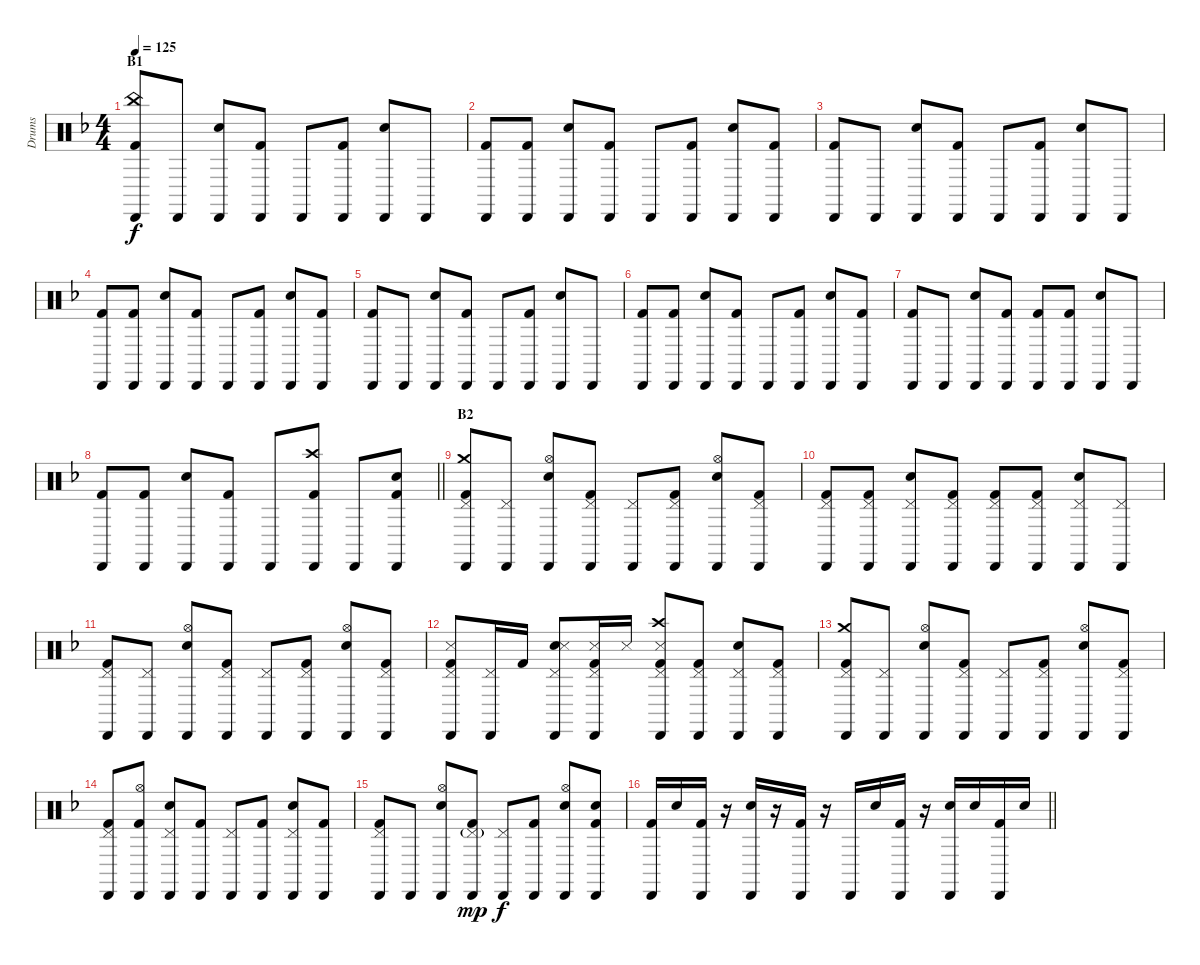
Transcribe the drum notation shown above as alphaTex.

\track ("Drums" "Drums") {instrument percussion}
\staff {score}
\articulation defaults
\ts (4 4)
\section ("" "B1")
\tempo 125
\clef neutral
\ks f
("Cabasa (hit)" "Kick (hit) 2" "China (hit)").8{dy f} "Cabasa (hit)".8 ("Cabasa (hit)" "Electric Snare (hit)").8 ("Cabasa (hit)" "Kick (hit) 2").8 "Cabasa (hit)".8 ("Cabasa (hit)" "Kick (hit) 2").8 ("Cabasa (hit)" "Electric Snare (hit)").8 "Cabasa (hit)".8 |
("Cabasa (hit)" "Kick (hit) 2").8 ("Cabasa (hit)" "Kick (hit) 2").8 ("Cabasa (hit)" "Electric Snare (hit)").8 ("Cabasa (hit)" "Kick (hit) 2").8 "Cabasa (hit)".8 ("Cabasa (hit)" "Kick (hit) 2").8 ("Cabasa (hit)" "Electric Snare (hit)").8 ("Cabasa (hit)" "Kick (hit) 2").8 |
("Cabasa (hit)" "Kick (hit) 2").8 "Cabasa (hit)".8 ("Cabasa (hit)" "Electric Snare (hit)").8 ("Cabasa (hit)" "Kick (hit) 2").8 "Cabasa (hit)".8 ("Cabasa (hit)" "Kick (hit) 2").8 ("Cabasa (hit)" "Electric Snare (hit)").8 "Cabasa (hit)".8 |
("Cabasa (hit)" "Kick (hit) 2").8 ("Cabasa (hit)" "Kick (hit) 2").8 ("Cabasa (hit)" "Electric Snare (hit)").8 ("Cabasa (hit)" "Kick (hit) 2").8 "Cabasa (hit)".8 ("Cabasa (hit)" "Kick (hit) 2").8 ("Cabasa (hit)" "Electric Snare (hit)").8 ("Cabasa (hit)" "Kick (hit) 2").8 |
("Cabasa (hit)" "Kick (hit) 2").8 "Cabasa (hit)".8 ("Cabasa (hit)" "Electric Snare (hit)").8 ("Cabasa (hit)" "Kick (hit) 2").8 "Cabasa (hit)".8 ("Cabasa (hit)" "Kick (hit) 2").8 ("Cabasa (hit)" "Electric Snare (hit)").8 "Cabasa (hit)".8 |
("Cabasa (hit)" "Kick (hit) 2").8 ("Cabasa (hit)" "Kick (hit) 2").8 ("Cabasa (hit)" "Electric Snare (hit)").8 ("Cabasa (hit)" "Kick (hit) 2").8 "Cabasa (hit)".8 ("Cabasa (hit)" "Kick (hit) 2").8 ("Cabasa (hit)" "Electric Snare (hit)").8 ("Cabasa (hit)" "Kick (hit) 2").8 |
("Cabasa (hit)" "Kick (hit) 2").8 "Cabasa (hit)".8 ("Cabasa (hit)" "Electric Snare (hit)").8 ("Cabasa (hit)" "Kick (hit) 2").8 ("Cabasa (hit)" "Kick (hit) 2").8 ("Cabasa (hit)" "Kick (hit) 2").8 ("Cabasa (hit)" "Electric Snare (hit)").8 "Cabasa (hit)".8 |
\barLineRight lightlight
("Cabasa (hit)" "Kick (hit) 2").8 ("Cabasa (hit)" "Kick (hit) 2").8 ("Cabasa (hit)" "Electric Snare (hit)").8 ("Cabasa (hit)" "Kick (hit) 2").8 "Cabasa (hit)".8 ("Cabasa (hit)" "Kick (hit) 2" "Crash high (hit)").8 "Cabasa (hit)".8 ("Cabasa (hit)" "Electric Snare (hit)" "Kick (hit) 2").8 |
\section ("" "B2")
("Cabasa (hit)" "Kick (hit) 2" "Crash medium (hit)" "Pedal Hi-Hat (hit)").8 ("Cabasa (hit)" "Pedal Hi-Hat (hit)").8 ("Cabasa (hit)" "Electric Snare (hit)" "Hi-Hat (open)").8 ("Cabasa (hit)" "Kick (hit) 2" "Pedal Hi-Hat (hit)").8 ("Cabasa (hit)" "Pedal Hi-Hat (hit)").8 ("Cabasa (hit)" "Kick (hit) 2" "Pedal Hi-Hat (hit)").8 ("Cabasa (hit)" "Electric Snare (hit)" "Hi-Hat (open)").8 ("Cabasa (hit)" "Kick (hit) 2" "Pedal Hi-Hat (hit)").8 |
("Cabasa (hit)" "Kick (hit) 2" "Pedal Hi-Hat (hit)").8 ("Cabasa (hit)" "Kick (hit) 2" "Pedal Hi-Hat (hit)").8 ("Cabasa (hit)" "Electric Snare (hit)" "Pedal Hi-Hat (hit)").8 ("Cabasa (hit)" "Kick (hit) 2" "Pedal Hi-Hat (hit)").8 ("Cabasa (hit)" "Kick (hit) 2" "Pedal Hi-Hat (hit)").8 ("Cabasa (hit)" "Kick (hit) 2" "Pedal Hi-Hat (hit)").8 ("Cabasa (hit)" "Electric Snare (hit)" "Pedal Hi-Hat (hit)").8 ("Cabasa (hit)" "Pedal Hi-Hat (hit)").8 |
("Cabasa (hit)" "Kick (hit) 2" "Pedal Hi-Hat (hit)").8 ("Cabasa (hit)" "Pedal Hi-Hat (hit)").8 ("Cabasa (hit)" "Electric Snare (hit)" "Hi-Hat (open)").8 ("Cabasa (hit)" "Kick (hit) 2" "Pedal Hi-Hat (hit)").8 ("Cabasa (hit)" "Pedal Hi-Hat (hit)").8 ("Cabasa (hit)" "Kick (hit) 2" "Pedal Hi-Hat (hit)").8 ("Cabasa (hit)" "Electric Snare (hit)" "Hi-Hat (open)").8 ("Cabasa (hit)" "Kick (hit) 2" "Pedal Hi-Hat (hit)").8 |
("Cabasa (hit)" "Kick (hit) 2" "Snare (side stick) 3" "Pedal Hi-Hat (hit)").8 ("Cabasa (hit)" "Pedal Hi-Hat (hit)").16 "Kick (hit) 2".16 ("Cabasa (hit)" "Electric Snare (hit)" "Snare (side stick) 3" "Pedal Hi-Hat (hit)").8 ("Cabasa (hit)" "Kick (hit) 2" "Snare (side stick) 3" "Pedal Hi-Hat (hit)").16 "Snare (side stick) 3".16 ("Cabasa (hit)" "Kick (hit) 2" "Metronome (hit)" "Crash high (hit)" "Pedal Hi-Hat (hit)").8 ("Cabasa (hit)" "Kick (hit) 2" "Pedal Hi-Hat (hit)").8 ("Cabasa (hit)" "Electric Snare (hit)" "Pedal Hi-Hat (hit)").8 ("Cabasa (hit)" "Kick (hit) 2" "Pedal Hi-Hat (hit)").8 |
("Cabasa (hit)" "Kick (hit) 2" "Crash medium (hit)" "Pedal Hi-Hat (hit)").8 ("Cabasa (hit)" "Pedal Hi-Hat (hit)").8 ("Cabasa (hit)" "Electric Snare (hit)" "Hi-Hat (open)").8 ("Cabasa (hit)" "Kick (hit) 2" "Pedal Hi-Hat (hit)").8 ("Cabasa (hit)" "Pedal Hi-Hat (hit)").8 ("Cabasa (hit)" "Kick (hit) 2" "Pedal Hi-Hat (hit)").8 ("Cabasa (hit)" "Electric Snare (hit)" "Hi-Hat (open)").8 ("Cabasa (hit)" "Kick (hit) 2" "Pedal Hi-Hat (hit)").8 |
("Cabasa (hit)" "Kick (hit) 2" "Pedal Hi-Hat (hit)").8 ("Cabasa (hit)" "Kick (hit) 2" "Hi-Hat (open)").8 ("Cabasa (hit)" "Electric Snare (hit)" "Pedal Hi-Hat (hit)").8 ("Cabasa (hit)" "Kick (hit) 2").8 ("Cabasa (hit)" "Pedal Hi-Hat (hit)").8 ("Cabasa (hit)" "Kick (hit) 2").8 ("Cabasa (hit)" "Electric Snare (hit)" "Pedal Hi-Hat (hit)").8 ("Cabasa (hit)" "Kick (hit) 2").8 |
("Cabasa (hit)" "Kick (hit) 2" "Pedal Hi-Hat (hit)").8 "Cabasa (hit)".8 ("Cabasa (hit)" "Electric Snare (hit)" "Hi-Hat (open)").8 ("Cabasa (hit)" "Kick (hit) 2" "Pedal Hi-Hat (hit)"{g}).8{dy mp} ("Cabasa (hit)" "Pedal Hi-Hat (hit)").8{dy f} ("Cabasa (hit)" "Kick (hit) 2").8 ("Cabasa (hit)" "Electric Snare (hit)" "Hi-Hat (open)").8 ("Cabasa (hit)" "Kick (hit) 2" "Snare (hit)").8 |
\barLineRight lightlight
("Cabasa (hit)" "Kick (hit) 2").16 "Electric Snare (hit)".16 ("Cabasa (hit)" "Kick (hit) 2").16 r.16 ("Cabasa (hit)" "Electric Snare (hit)").16 r.16 ("Cabasa (hit)" "Kick (hit) 2").16 r.16 "Cabasa (hit)".16 "Electric Snare (hit)".16 ("Cabasa (hit)" "Kick (hit) 2").16 r.16 ("Cabasa (hit)" "Electric Snare (hit)").16 "Electric Snare (hit)".16 ("Cabasa (hit)" "Kick (hit) 2").16 "Electric Snare (hit)".16
